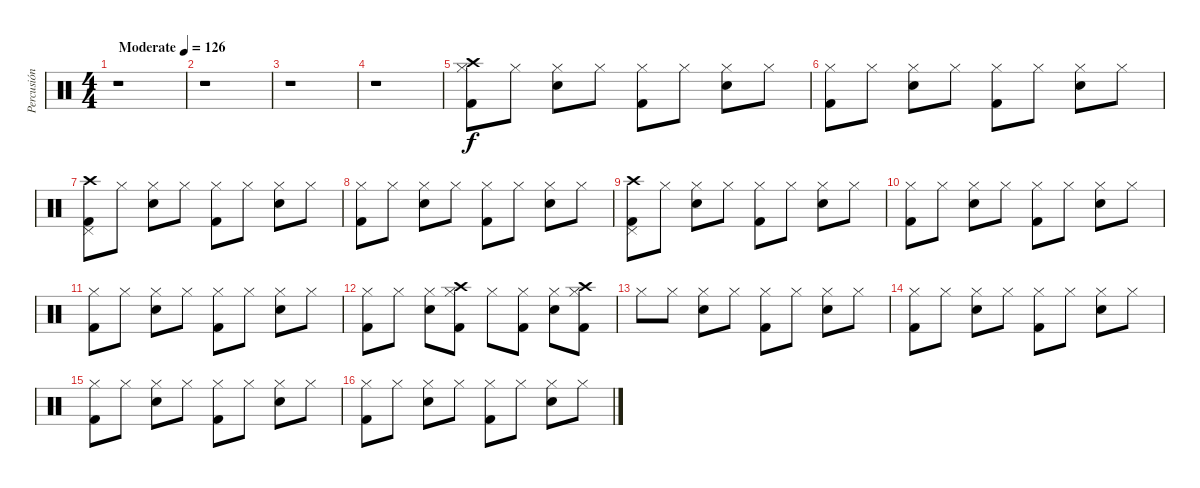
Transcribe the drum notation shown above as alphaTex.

\track ("Percusión" "Percusión") {instrument percussion}
\staff {score}
\articulation defaults
\ts (4 4)
\tempo (126 "Moderate")
\clef neutral
\ks c
r.1{dy f} |
r.1 |
r.1 |
r.1 |
("Hi-Hat (closed)" "Crash high (hit)" "Kick (hit) 2").8 "Hi-Hat (closed)".8 ("Hi-Hat (closed)" "Snare (hit) 2").8 "Hi-Hat (closed)".8 ("Hi-Hat (closed)" "Kick (hit) 2").8 "Hi-Hat (closed)".8 ("Hi-Hat (closed)" "Snare (hit) 2").8 "Hi-Hat (closed)".8 |
("Hi-Hat (closed)" "Kick (hit) 2").8 "Hi-Hat (closed)".8 ("Hi-Hat (closed)" "Snare (hit) 2").8 "Hi-Hat (closed)".8 ("Hi-Hat (closed)" "Kick (hit) 2").8 "Hi-Hat (closed)".8 ("Hi-Hat (closed)" "Snare (hit) 2").8 "Hi-Hat (closed)".8 |
("Pedal Hi-Hat (hit)" "Crash high (hit)" "Kick (hit) 2").8 "Hi-Hat (closed)".8 ("Hi-Hat (closed)" "Snare (hit) 2").8 "Hi-Hat (closed)".8 ("Hi-Hat (closed)" "Kick (hit) 2").8 "Hi-Hat (closed)".8 ("Hi-Hat (closed)" "Snare (hit) 2").8 "Hi-Hat (closed)".8 |
("Hi-Hat (closed)" "Kick (hit) 2").8 "Hi-Hat (closed)".8 ("Hi-Hat (closed)" "Snare (hit) 2").8 "Hi-Hat (closed)".8 ("Hi-Hat (closed)" "Kick (hit) 2").8 "Hi-Hat (closed)".8 ("Hi-Hat (closed)" "Snare (hit) 2").8 "Hi-Hat (closed)".8 |
("Pedal Hi-Hat (hit)" "Crash high (hit)" "Kick (hit) 2").8 "Hi-Hat (closed)".8 ("Hi-Hat (closed)" "Snare (hit) 2").8 "Hi-Hat (closed)".8 ("Hi-Hat (closed)" "Kick (hit) 2").8 "Hi-Hat (closed)".8 ("Hi-Hat (closed)" "Snare (hit) 2").8 "Hi-Hat (closed)".8 |
("Hi-Hat (closed)" "Kick (hit) 2").8 "Hi-Hat (closed)".8 ("Hi-Hat (closed)" "Snare (hit) 2").8 "Hi-Hat (closed)".8 ("Hi-Hat (closed)" "Kick (hit) 2").8 "Hi-Hat (closed)".8 ("Hi-Hat (closed)" "Snare (hit) 2").8 "Hi-Hat (closed)".8 |
("Hi-Hat (closed)" "Kick (hit) 2").8 "Hi-Hat (closed)".8 ("Hi-Hat (closed)" "Snare (hit) 2").8 "Hi-Hat (closed)".8 ("Hi-Hat (closed)" "Kick (hit) 2").8 "Hi-Hat (closed)".8 ("Hi-Hat (closed)" "Snare (hit) 2").8 "Hi-Hat (closed)".8 |
("Hi-Hat (closed)" "Kick (hit) 2").8 "Hi-Hat (closed)".8 ("Hi-Hat (closed)" "Snare (hit) 2").8 ("Hi-Hat (closed)" "Crash high (hit)" "Kick (hit) 2").8 "Hi-Hat (closed)".8 ("Hi-Hat (closed)" "Kick (hit) 2").8 ("Hi-Hat (closed)" "Snare (hit) 2").8 ("Hi-Hat (closed)" "Crash high (hit)" "Kick (hit) 2").8 |
"Hi-Hat (closed)".8 "Hi-Hat (closed)".8 ("Hi-Hat (closed)" "Snare (hit) 2").8 "Hi-Hat (closed)".8 ("Hi-Hat (closed)" "Kick (hit) 2").8 "Hi-Hat (closed)".8 ("Hi-Hat (closed)" "Snare (hit) 2").8 "Hi-Hat (closed)".8 |
("Hi-Hat (closed)" "Kick (hit) 2").8 "Hi-Hat (closed)".8 ("Hi-Hat (closed)" "Snare (hit) 2").8 "Hi-Hat (closed)".8 ("Hi-Hat (closed)" "Kick (hit) 2").8 "Hi-Hat (closed)".8 ("Hi-Hat (closed)" "Snare (hit) 2").8 "Hi-Hat (closed)".8 |
("Hi-Hat (closed)" "Kick (hit) 2").8 "Hi-Hat (closed)".8 ("Hi-Hat (closed)" "Snare (hit) 2").8 "Hi-Hat (closed)".8 ("Hi-Hat (closed)" "Kick (hit) 2").8 "Hi-Hat (closed)".8 ("Hi-Hat (closed)" "Snare (hit) 2").8 "Hi-Hat (closed)".8 |
("Hi-Hat (closed)" "Kick (hit) 2").8 "Hi-Hat (closed)".8 ("Hi-Hat (closed)" "Snare (hit) 2").8 "Hi-Hat (closed)".8 ("Hi-Hat (closed)" "Kick (hit) 2").8 "Hi-Hat (closed)".8 ("Hi-Hat (closed)" "Snare (hit) 2").8 "Hi-Hat (closed)".8
